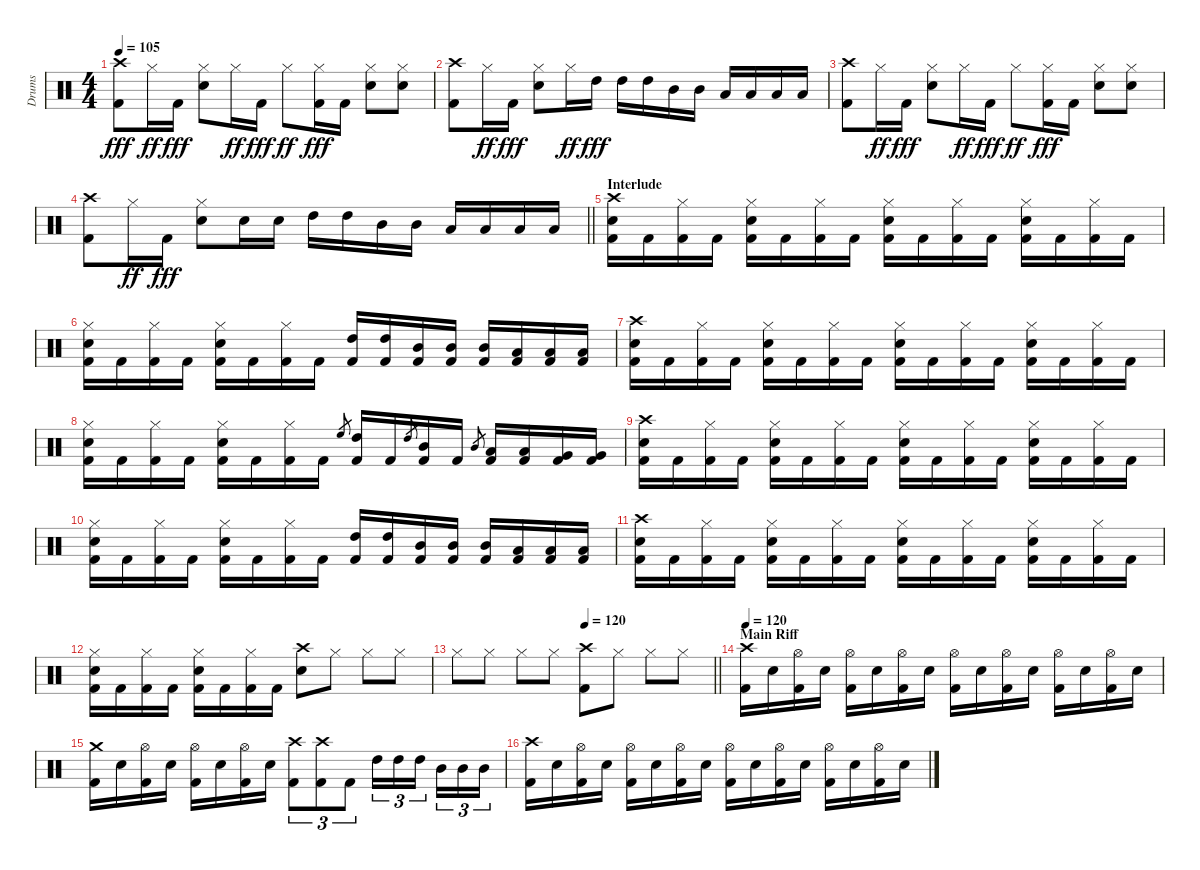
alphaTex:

\track ("Drums" "Drums") {instrument percussion}
\staff {score}
\articulation defaults
\ts (4 4)
\tempo 105
\clef neutral
\ks c
("Crash high (hit)" "Kick (hit) 2").8{dy fff} "Hi-Hat (closed)".16{dy ff} "Kick (hit) 2".16{dy fff} ("Hi-Hat (closed)" "Snare (hit) 2").8 "Hi-Hat (closed)".16{dy ff} "Kick (hit) 2".16{dy fff} "Hi-Hat (closed)".8{dy ff} ("Hi-Hat (closed)" "Kick (hit) 2").16{dy fff} "Kick (hit) 2".16 ("Hi-Hat (closed)" "Snare (hit) 2").8 ("Hi-Hat (closed)" "Snare (hit) 2").8 |
("Crash high (hit)" "Kick (hit) 2").8 "Hi-Hat (closed)".16{dy ff} "Kick (hit) 2".16{dy fff} ("Hi-Hat (closed)" "Snare (hit) 2").8 "Hi-Hat (closed)".16{dy ff} "High Tom (hit)".16{dy fff} "High Tom (hit)".16 "High Tom (hit)".16 "Mid Tom (hit)".16 "Mid Tom (hit)".16 "Low Tom (hit)".16 "Low Tom (hit)".16 "Low Tom (hit)".16 "Low Tom (hit)".16 |
("Crash high (hit)" "Kick (hit) 2").8 "Hi-Hat (closed)".16{dy ff} "Kick (hit) 2".16{dy fff} ("Hi-Hat (closed)" "Snare (hit) 2").8 "Hi-Hat (closed)".16{dy ff} "Kick (hit) 2".16{dy fff} "Hi-Hat (closed)".8{dy ff} ("Hi-Hat (closed)" "Kick (hit) 2").16{dy fff} "Kick (hit) 2".16 ("Hi-Hat (closed)" "Snare (hit) 2").8 ("Hi-Hat (closed)" "Snare (hit) 2").8 |
\barLineRight lightlight
("Crash high (hit)" "Kick (hit) 2").8 "Hi-Hat (closed)".16{dy ff} "Kick (hit) 2".16{dy fff} ("Hi-Hat (closed)" "Snare (hit) 2").8 "Snare (hit) 2".16 "Snare (hit) 2".16 "High Tom (hit)".16 "High Tom (hit)".16 "Mid Tom (hit)".16 "Mid Tom (hit)".16 "Low Tom (hit)".16 "Low Tom (hit)".16 "Low Tom (hit)".16 "Low Tom (hit)".16 |
\section ("" "Interlude")
("Crash high (hit)" "Snare (hit) 2" "Kick (hit) 2").16 "Kick (hit) 2".16 ("Hi-Hat (closed)" "Kick (hit) 2").16 "Kick (hit) 2".16 ("Hi-Hat (closed)" "Snare (hit) 2" "Kick (hit) 2").16 "Kick (hit) 2".16 ("Hi-Hat (closed)" "Kick (hit) 2").16 "Kick (hit) 2".16 ("Hi-Hat (closed)" "Snare (hit) 2" "Kick (hit) 2").16 "Kick (hit) 2".16 ("Hi-Hat (closed)" "Kick (hit) 2").16 "Kick (hit) 2".16 ("Hi-Hat (closed)" "Snare (hit) 2" "Kick (hit) 2").16 "Kick (hit) 2".16 ("Hi-Hat (closed)" "Kick (hit) 2").16 "Kick (hit) 2".16 |
("Hi-Hat (closed)" "Snare (hit) 2" "Kick (hit) 2").16 "Kick (hit) 2".16 ("Hi-Hat (closed)" "Kick (hit) 2").16 "Kick (hit) 2".16 ("Hi-Hat (closed)" "Snare (hit) 2" "Kick (hit) 2").16 "Kick (hit) 2".16 ("Hi-Hat (closed)" "Kick (hit) 2").16 "Kick (hit) 2".16 ("High Tom (hit)" "Kick (hit) 2").16 ("High Tom (hit)" "Kick (hit) 2").16 ("Mid Tom (hit)" "Kick (hit) 2").16 ("Mid Tom (hit)" "Kick (hit) 2").16 ("Mid Tom (hit)" "Kick (hit) 2").16 ("Low Tom (hit)" "Kick (hit) 2").16 ("Low Tom (hit)" "Kick (hit) 2").16 ("Low Tom (hit)" "Kick (hit) 2").16 |
("Crash high (hit)" "Snare (hit) 2" "Kick (hit) 2").16 "Kick (hit) 2".16 ("Hi-Hat (closed)" "Kick (hit) 2").16 "Kick (hit) 2".16 ("Hi-Hat (closed)" "Snare (hit) 2" "Kick (hit) 2").16 "Kick (hit) 2".16 ("Hi-Hat (closed)" "Kick (hit) 2").16 "Kick (hit) 2".16 ("Hi-Hat (closed)" "Snare (hit) 2" "Kick (hit) 2").16 "Kick (hit) 2".16 ("Hi-Hat (closed)" "Kick (hit) 2").16 "Kick (hit) 2".16 ("Hi-Hat (closed)" "Snare (hit) 2" "Kick (hit) 2").16 "Kick (hit) 2".16 ("Hi-Hat (closed)" "Kick (hit) 2").16 "Kick (hit) 2".16 |
("Hi-Hat (closed)" "Snare (hit) 2" "Kick (hit) 2").16 "Kick (hit) 2".16 ("Hi-Hat (closed)" "Kick (hit) 2").16 "Kick (hit) 2".16 ("Hi-Hat (closed)" "Snare (hit) 2" "Kick (hit) 2").16 "Kick (hit) 2".16 ("Hi-Hat (closed)" "Kick (hit) 2").16 "Kick (hit) 2".16 "High Floor Tom (hit)".8{gr} ("High Tom (hit)" "Kick (hit) 2").16 "Kick (hit) 2".16 "High Tom (hit)".8{gr} ("Mid Tom (hit)" "Kick (hit) 2").16 "Kick (hit) 2".16 "Mid Tom (hit)".8{gr} ("Low Tom (hit)" "Kick (hit) 2").16 ("Low Tom (hit)" "Kick (hit) 2").16 ("Very Low Tom (hit)" "Kick (hit) 2").16 ("Very Low Tom (hit)" "Kick (hit) 2").16 |
("Crash high (hit)" "Snare (hit) 2" "Kick (hit) 2").16 "Kick (hit) 2".16 ("Hi-Hat (closed)" "Kick (hit) 2").16 "Kick (hit) 2".16 ("Hi-Hat (closed)" "Snare (hit) 2" "Kick (hit) 2").16 "Kick (hit) 2".16 ("Hi-Hat (closed)" "Kick (hit) 2").16 "Kick (hit) 2".16 ("Hi-Hat (closed)" "Snare (hit) 2" "Kick (hit) 2").16 "Kick (hit) 2".16 ("Hi-Hat (closed)" "Kick (hit) 2").16 "Kick (hit) 2".16 ("Hi-Hat (closed)" "Snare (hit) 2" "Kick (hit) 2").16 "Kick (hit) 2".16 ("Hi-Hat (closed)" "Kick (hit) 2").16 "Kick (hit) 2".16 |
("Hi-Hat (closed)" "Snare (hit) 2" "Kick (hit) 2").16 "Kick (hit) 2".16 ("Hi-Hat (closed)" "Kick (hit) 2").16 "Kick (hit) 2".16 ("Hi-Hat (closed)" "Snare (hit) 2" "Kick (hit) 2").16 "Kick (hit) 2".16 ("Hi-Hat (closed)" "Kick (hit) 2").16 "Kick (hit) 2".16 ("High Tom (hit)" "Kick (hit) 2").16 ("High Tom (hit)" "Kick (hit) 2").16 ("Mid Tom (hit)" "Kick (hit) 2").16 ("Mid Tom (hit)" "Kick (hit) 2").16 ("Mid Tom (hit)" "Kick (hit) 2").16 ("Low Tom (hit)" "Kick (hit) 2").16 ("Low Tom (hit)" "Kick (hit) 2").16 ("Low Tom (hit)" "Kick (hit) 2").16 |
("Crash high (hit)" "Snare (hit) 2" "Kick (hit) 2").16 "Kick (hit) 2".16 ("Hi-Hat (closed)" "Kick (hit) 2").16 "Kick (hit) 2".16 ("Hi-Hat (closed)" "Snare (hit) 2" "Kick (hit) 2").16 "Kick (hit) 2".16 ("Hi-Hat (closed)" "Kick (hit) 2").16 "Kick (hit) 2".16 ("Hi-Hat (closed)" "Snare (hit) 2" "Kick (hit) 2").16 "Kick (hit) 2".16 ("Hi-Hat (closed)" "Kick (hit) 2").16 "Kick (hit) 2".16 ("Hi-Hat (closed)" "Snare (hit) 2" "Kick (hit) 2").16 "Kick (hit) 2".16 ("Hi-Hat (closed)" "Kick (hit) 2").16 "Kick (hit) 2".16 |
("Hi-Hat (closed)" "Snare (hit) 2" "Kick (hit) 2").16 "Kick (hit) 2".16 ("Hi-Hat (closed)" "Kick (hit) 2").16 "Kick (hit) 2".16 ("Hi-Hat (closed)" "Snare (hit) 2" "Kick (hit) 2").16 "Kick (hit) 2".16 ("Hi-Hat (closed)" "Kick (hit) 2").16 "Kick (hit) 2".16 ("Crash high (hit)" "Snare (hit) 2").8 "Hi-Hat (closed)".8 "Hi-Hat (closed)".8 "Hi-Hat (closed)".8 |
\tempo (120 0.5)
\barLineRight lightlight "Hi-Hat (closed)".8 "Hi-Hat (closed)".8 "Hi-Hat (closed)".8 "Hi-Hat (closed)".8
("Crash high (hit)" "Kick (hit) 2").8 "Hi-Hat (closed)".8 "Hi-Hat (closed)".8 "Hi-Hat (closed)".8 |
\section ("" "Main Riff")
\tempo 120
("Crash high (hit)" "Kick (hit) 2").16 "Snare (hit) 2".16 ("Hi-Hat (open)" "Kick (hit) 2").16 "Snare (hit) 2".16 ("Hi-Hat (open)" "Kick (hit) 2").16 "Snare (hit) 2".16 ("Hi-Hat (open)" "Kick (hit) 2").16 "Snare (hit) 2".16 ("Hi-Hat (open)" "Kick (hit) 2").16 "Snare (hit) 2".16 ("Hi-Hat (open)" "Kick (hit) 2").16 "Snare (hit) 2".16 ("Hi-Hat (open)" "Kick (hit) 2").16 "Snare (hit) 2".16 ("Hi-Hat (open)" "Kick (hit) 2").16 "Snare (hit) 2".16 |
("Crash medium (hit)" "Kick (hit) 2").16 "Snare (hit) 2".16 ("Hi-Hat (open)" "Kick (hit) 2").16 "Snare (hit) 2".16 ("Hi-Hat (open)" "Kick (hit) 2").16 "Snare (hit) 2".16 ("Hi-Hat (open)" "Kick (hit) 2").16 "Snare (hit) 2".16 ("Crash high (hit)" "Kick (hit) 2").8{tu (3 2)} ("Crash high (hit)" "Kick (hit) 2").8{tu (3 2)} "Kick (hit) 2".8{tu (3 2)} "High Tom (hit)".16{tu (3 2)} "High Tom (hit)".16{tu (3 2)} "High Tom (hit)".16{tu (3 2) beam splitsecondary} "Mid Tom (hit)".16{tu (3 2)} "Mid Tom (hit)".16{tu (3 2)} "Mid Tom (hit)".16{tu (3 2)} |
("Crash high (hit)" "Kick (hit) 2").16 "Snare (hit) 2".16 ("Hi-Hat (open)" "Kick (hit) 2").16 "Snare (hit) 2".16 ("Hi-Hat (open)" "Kick (hit) 2").16 "Snare (hit) 2".16 ("Hi-Hat (open)" "Kick (hit) 2").16 "Snare (hit) 2".16 ("Hi-Hat (open)" "Kick (hit) 2").16 "Snare (hit) 2".16 ("Hi-Hat (open)" "Kick (hit) 2").16 "Snare (hit) 2".16 ("Hi-Hat (open)" "Kick (hit) 2").16 "Snare (hit) 2".16 ("Hi-Hat (open)" "Kick (hit) 2").16 "Snare (hit) 2".16
